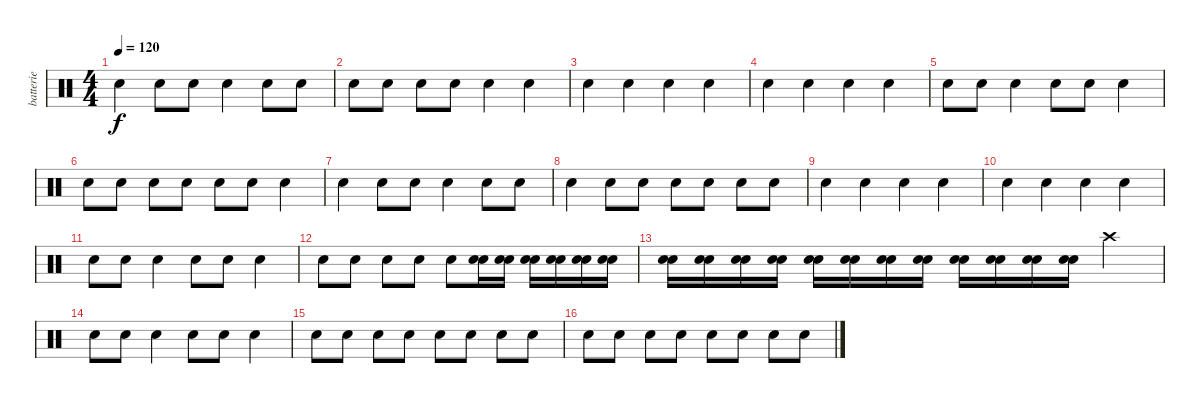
\track ("batterie" "batterie") {instrument percussion}
\staff {score}
\articulation defaults
\ts (4 4)
\tempo 120
\clef neutral
\ks c "Electric Snare (hit)".4{dy f} "Snare (hit) 2".8 "Snare (hit) 2".8 "Electric Snare (hit)".4 "Snare (hit) 2".8 "Snare (hit) 2".8
|
"Electric Snare (hit)".8 "Electric Snare (hit)".8 "Snare (hit) 2".8 "Snare (hit) 2".8 "Electric Snare (hit)".4 "Snare (hit) 2".4 |
"Electric Snare (hit)".4 "Snare (hit) 2".4 "Electric Snare (hit)".4 "Snare (hit) 2".4 |
"Electric Snare (hit)".4 "Snare (hit) 2".4 "Electric Snare (hit)".4 "Snare (hit) 2".4 |
"Snare (hit) 2".8 "Snare (hit) 2".8 "Electric Snare (hit)".4 "Snare (hit) 2".8 "Snare (hit) 2".8 "Electric Snare (hit)".4 |
"Snare (hit) 2".8 "Snare (hit) 2".8 "Electric Snare (hit)".8 "Electric Snare (hit)".8 "Snare (hit) 2".8 "Snare (hit) 2".8 "Electric Snare (hit)".4 |
"Snare (hit) 2".4 "Snare (hit) 2".8 "Snare (hit) 2".8 "Electric Snare (hit)".4 "Snare (hit) 2".8 "Snare (hit) 2".8 |
"Electric Snare (hit)".4 "Snare (hit) 2".8 "Snare (hit) 2".8 "Electric Snare (hit)".8 "Electric Snare (hit)".8 "Snare (hit) 2".8 "Snare (hit) 2".8 |
"Electric Snare (hit)".4 "Snare (hit) 2".4 "Electric Snare (hit)".4 "Snare (hit) 2".4 |
"Electric Snare (hit)".4 "Snare (hit) 2".4 "Electric Snare (hit)".4 "Snare (hit) 2".4 |
"Snare (hit) 2".8 "Snare (hit) 2".8 "Electric Snare (hit)".4 "Snare (hit) 2".8 "Snare (hit) 2".8 "Electric Snare (hit)".4 |
"Snare (hit) 2".8 "Snare (hit) 2".8 "Electric Snare (hit)".8 "Electric Snare (hit)".8 "Snare (hit) 2".8 ("Snare (hit) 2" "Electric Snare (hit)").16 ("Snare (hit) 2" "Electric Snare (hit)").16 ("Snare (hit) 2" "Electric Snare (hit)").16 ("Snare (hit) 2" "Electric Snare (hit)").16 ("Snare (hit) 2" "Electric Snare (hit)").16 ("Snare (hit) 2" "Electric Snare (hit)").16 |
("Snare (hit) 2" "Electric Snare (hit)").16 ("Snare (hit) 2" "Electric Snare (hit)").16 ("Snare (hit) 2" "Electric Snare (hit)").16 ("Snare (hit) 2" "Electric Snare (hit)").16 ("Snare (hit) 2" "Electric Snare (hit)").16 ("Snare (hit) 2" "Electric Snare (hit)").16 ("Snare (hit) 2" "Electric Snare (hit)").16 ("Snare (hit) 2" "Electric Snare (hit)").16 ("Snare (hit) 2" "Electric Snare (hit)").16 ("Snare (hit) 2" "Electric Snare (hit)").16 ("Snare (hit) 2" "Electric Snare (hit)").16 ("Snare (hit) 2" "Electric Snare (hit)").16 "Crash high (hit)".4 |
"Snare (hit) 2".8 "Snare (hit) 2".8 "Electric Snare (hit)".4 "Snare (hit) 2".8 "Snare (hit) 2".8 "Electric Snare (hit)".4 |
"Snare (hit) 2".8 "Snare (hit) 2".8 "Electric Snare (hit)".8 "Electric Snare (hit)".8 "Snare (hit) 2".8 "Snare (hit) 2".8 "Electric Snare (hit)".8 "Snare (hit) 2".8 |
"Electric Snare (hit)".8 "Snare (hit) 2".8 "Electric Snare (hit)".8 "Snare (hit) 2".8 "Electric Snare (hit)".8 "Snare (hit) 2".8 "Electric Snare (hit)".8 "Snare (hit) 2".8
